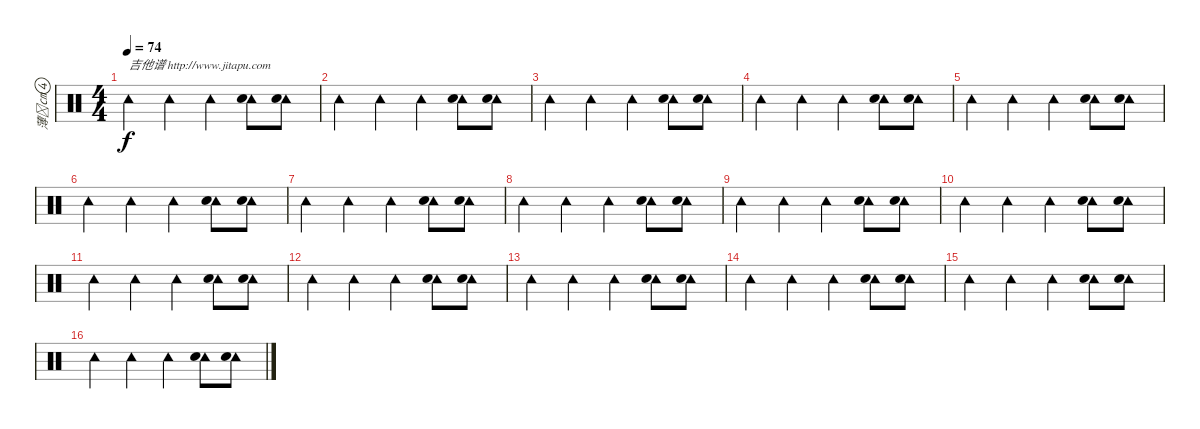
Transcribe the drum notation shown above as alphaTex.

\track ("薄㎝" "薄㎝") {instrument percussion}
\staff {score}
\articulation defaults
\ts (4 4)
\tempo 74
\clef neutral
\ks c "Tambourine (hit)".4{txt "吉他谱 http://www.jitapu.com" dy f} "Tambourine (hit)".4 "Tambourine (hit)".4
("Tambourine (hit)" "Snare (hit) 2").8 ("Tambourine (hit)" "Snare (hit) 2").8 |
"Tambourine (hit)".4 "Tambourine (hit)".4 "Tambourine (hit)".4 ("Tambourine (hit)" "Snare (hit) 2").8 ("Tambourine (hit)" "Snare (hit) 2").8 |
"Tambourine (hit)".4 "Tambourine (hit)".4 "Tambourine (hit)".4 ("Tambourine (hit)" "Snare (hit) 2").8 ("Tambourine (hit)" "Snare (hit) 2").8 |
"Tambourine (hit)".4 "Tambourine (hit)".4 "Tambourine (hit)".4 ("Tambourine (hit)" "Snare (hit) 2").8 ("Tambourine (hit)" "Snare (hit) 2").8 |
"Tambourine (hit)".4 "Tambourine (hit)".4 "Tambourine (hit)".4 ("Tambourine (hit)" "Snare (hit) 2").8 ("Tambourine (hit)" "Snare (hit) 2").8 |
"Tambourine (hit)".4 "Tambourine (hit)".4 "Tambourine (hit)".4 ("Tambourine (hit)" "Snare (hit) 2").8 ("Tambourine (hit)" "Snare (hit) 2").8 |
"Tambourine (hit)".4 "Tambourine (hit)".4 "Tambourine (hit)".4 ("Tambourine (hit)" "Snare (hit) 2").8 ("Tambourine (hit)" "Snare (hit) 2").8 |
"Tambourine (hit)".4 "Tambourine (hit)".4 "Tambourine (hit)".4 ("Tambourine (hit)" "Snare (hit) 2").8 ("Tambourine (hit)" "Snare (hit) 2").8 |
"Tambourine (hit)".4 "Tambourine (hit)".4 "Tambourine (hit)".4 ("Tambourine (hit)" "Snare (hit) 2").8 ("Tambourine (hit)" "Snare (hit) 2").8 |
"Tambourine (hit)".4 "Tambourine (hit)".4 "Tambourine (hit)".4 ("Tambourine (hit)" "Snare (hit) 2").8 ("Tambourine (hit)" "Snare (hit) 2").8 |
"Tambourine (hit)".4 "Tambourine (hit)".4 "Tambourine (hit)".4 ("Tambourine (hit)" "Snare (hit) 2").8 ("Tambourine (hit)" "Snare (hit) 2").8 |
"Tambourine (hit)".4 "Tambourine (hit)".4 "Tambourine (hit)".4 ("Tambourine (hit)" "Snare (hit) 2").8 ("Tambourine (hit)" "Snare (hit) 2").8 |
"Tambourine (hit)".4 "Tambourine (hit)".4 "Tambourine (hit)".4 ("Tambourine (hit)" "Snare (hit) 2").8 ("Tambourine (hit)" "Snare (hit) 2").8 |
"Tambourine (hit)".4 "Tambourine (hit)".4 "Tambourine (hit)".4 ("Tambourine (hit)" "Snare (hit) 2").8 ("Tambourine (hit)" "Snare (hit) 2").8 |
"Tambourine (hit)".4 "Tambourine (hit)".4 "Tambourine (hit)".4 ("Tambourine (hit)" "Snare (hit) 2").8 ("Tambourine (hit)" "Snare (hit) 2").8 |
"Tambourine (hit)".4 "Tambourine (hit)".4 "Tambourine (hit)".4 ("Tambourine (hit)" "Snare (hit) 2").8 ("Tambourine (hit)" "Snare (hit) 2").8
